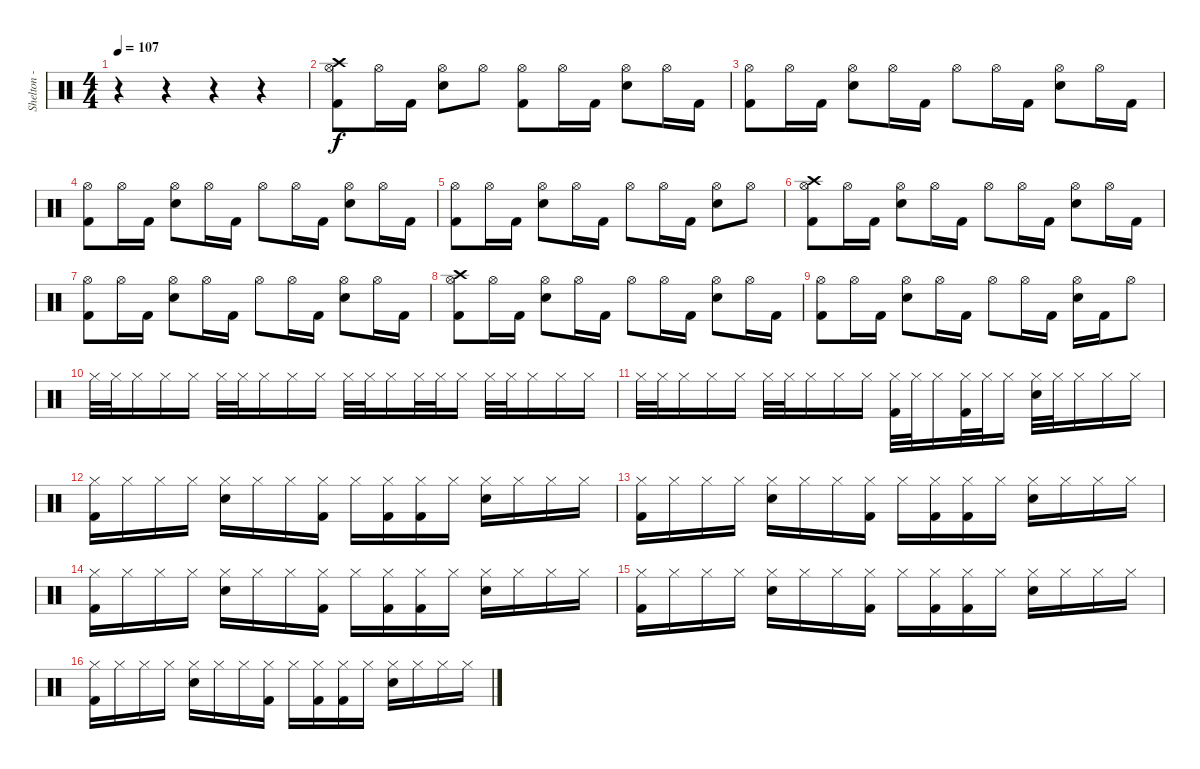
\track ("Shelton - Drums" "Shelton - ") {instrument percussion}
\staff {score}
\articulation defaults
\ts (4 4)
\tempo 107
\clef neutral
\ks c
r.4{dy f} r.4 r.4 r.4 |
("Hi-Hat (open)" "Crash high (hit)" "Kick (hit) 2").8 "Hi-Hat (open)".16 "Kick (hit) 2".16 ("Hi-Hat (open)" "Electric Snare (hit)").8 "Hi-Hat (open)".8 ("Hi-Hat (open)" "Kick (hit) 2").8 "Hi-Hat (open)".16 "Kick (hit) 2".16 ("Hi-Hat (open)" "Electric Snare (hit)").8 "Hi-Hat (open)".16 "Kick (hit) 2".16 |
("Hi-Hat (open)" "Kick (hit) 2").8 "Hi-Hat (open)".16 "Kick (hit) 2".16 ("Hi-Hat (open)" "Electric Snare (hit)").8 "Hi-Hat (open)".16 "Kick (hit) 2".16 "Hi-Hat (open)".8 "Hi-Hat (open)".16 "Kick (hit) 2".16 ("Hi-Hat (open)" "Electric Snare (hit)").8 "Hi-Hat (open)".16 "Kick (hit) 2".16 |
("Hi-Hat (open)" "Kick (hit) 2").8 "Hi-Hat (open)".16 "Kick (hit) 2".16 ("Hi-Hat (open)" "Electric Snare (hit)").8 "Hi-Hat (open)".16 "Kick (hit) 2".16 "Hi-Hat (open)".8 "Hi-Hat (open)".16 "Kick (hit) 2".16 ("Hi-Hat (open)" "Electric Snare (hit)").8 "Hi-Hat (open)".16 "Kick (hit) 2".16 |
("Hi-Hat (open)" "Kick (hit) 2").8 "Hi-Hat (open)".16 "Kick (hit) 2".16 ("Hi-Hat (open)" "Electric Snare (hit)").8 "Hi-Hat (open)".16 "Kick (hit) 2".16 "Hi-Hat (open)".8 "Hi-Hat (open)".16 "Kick (hit) 2".16 ("Hi-Hat (open)" "Electric Snare (hit)").8 "Hi-Hat (open)".8 |
("Hi-Hat (open)" "Crash high (hit)" "Kick (hit) 2").8 "Hi-Hat (open)".16 "Kick (hit) 2".16 ("Hi-Hat (open)" "Electric Snare (hit)").8 "Hi-Hat (open)".16 "Kick (hit) 2".16 "Hi-Hat (open)".8 "Hi-Hat (open)".16 "Kick (hit) 2".16 ("Hi-Hat (open)" "Electric Snare (hit)").8 "Hi-Hat (open)".16 "Kick (hit) 2".16 |
("Hi-Hat (open)" "Kick (hit) 2").8 "Hi-Hat (open)".16 "Kick (hit) 2".16 ("Hi-Hat (open)" "Electric Snare (hit)").8 "Hi-Hat (open)".16 "Kick (hit) 2".16 "Hi-Hat (open)".8 "Hi-Hat (open)".16 "Kick (hit) 2".16 ("Hi-Hat (open)" "Electric Snare (hit)").8 "Hi-Hat (open)".16 "Kick (hit) 2".16 |
("Hi-Hat (open)" "Crash high (hit)" "Kick (hit) 2").8 "Hi-Hat (open)".16 "Kick (hit) 2".16 ("Hi-Hat (open)" "Electric Snare (hit)").8 "Hi-Hat (open)".16 "Kick (hit) 2".16 "Hi-Hat (open)".8 "Hi-Hat (open)".16 "Kick (hit) 2".16 ("Hi-Hat (open)" "Electric Snare (hit)").8 "Hi-Hat (open)".16 "Kick (hit) 2".16 |
("Hi-Hat (open)" "Kick (hit) 2").8 "Hi-Hat (open)".16 "Kick (hit) 2".16 ("Hi-Hat (open)" "Electric Snare (hit)").8 "Hi-Hat (open)".16 "Kick (hit) 2".16 "Hi-Hat (open)".8 "Hi-Hat (open)".16 "Kick (hit) 2".16 ("Hi-Hat (open)" "Electric Snare (hit)").16 "Kick (hit) 2".16 "Hi-Hat (open)".8 |
"Hi-Hat (closed)".32 "Hi-Hat (closed)".32 "Hi-Hat (closed)".16 "Hi-Hat (closed)".16 "Hi-Hat (closed)".16 "Hi-Hat (closed)".32 "Hi-Hat (closed)".32 "Hi-Hat (closed)".16 "Hi-Hat (closed)".16 "Hi-Hat (closed)".16 "Hi-Hat (closed)".32 "Hi-Hat (closed)".32 "Hi-Hat (closed)".16 "Hi-Hat (closed)".32 "Hi-Hat (closed)".32 "Hi-Hat (closed)".16 "Hi-Hat (closed)".32 "Hi-Hat (closed)".32 "Hi-Hat (closed)".16 "Hi-Hat (closed)".16 "Hi-Hat (closed)".16 |
"Hi-Hat (closed)".32 "Hi-Hat (closed)".32 "Hi-Hat (closed)".16 "Hi-Hat (closed)".16 "Hi-Hat (closed)".16 "Hi-Hat (closed)".32 "Hi-Hat (closed)".32 "Hi-Hat (closed)".16 "Hi-Hat (closed)".16 "Hi-Hat (closed)".16 ("Hi-Hat (closed)" "Kick (hit) 2").32 "Hi-Hat (closed)".32 "Hi-Hat (closed)".16 ("Hi-Hat (closed)" "Kick (hit) 2").32 "Hi-Hat (closed)".32 "Hi-Hat (closed)".16 ("Hi-Hat (closed)" "Electric Snare (hit)").32 "Hi-Hat (closed)".32 "Hi-Hat (closed)".16 "Hi-Hat (closed)".16 "Hi-Hat (closed)".16 |
("Hi-Hat (closed)" "Kick (hit) 2").16 "Hi-Hat (closed)".16 "Hi-Hat (closed)".16 "Hi-Hat (closed)".16 ("Hi-Hat (closed)" "Electric Snare (hit)").16 "Hi-Hat (closed)".16 "Hi-Hat (closed)".16 ("Hi-Hat (closed)" "Kick (hit) 2").16 "Hi-Hat (closed)".16 ("Hi-Hat (closed)" "Kick (hit) 2").16 ("Hi-Hat (closed)" "Kick (hit) 2").16 "Hi-Hat (closed)".16 ("Hi-Hat (closed)" "Electric Snare (hit)").16 "Hi-Hat (closed)".16 "Hi-Hat (closed)".16 "Hi-Hat (closed)".16 |
("Hi-Hat (closed)" "Kick (hit) 2").16 "Hi-Hat (closed)".16 "Hi-Hat (closed)".16 "Hi-Hat (closed)".16 ("Hi-Hat (closed)" "Electric Snare (hit)").16 "Hi-Hat (closed)".16 "Hi-Hat (closed)".16 ("Hi-Hat (closed)" "Kick (hit) 2").16 "Hi-Hat (closed)".16 ("Hi-Hat (closed)" "Kick (hit) 2").16 ("Hi-Hat (closed)" "Kick (hit) 2").16 "Hi-Hat (closed)".16 ("Hi-Hat (closed)" "Electric Snare (hit)").16 "Hi-Hat (closed)".16 "Hi-Hat (closed)".16 "Hi-Hat (closed)".16 |
("Hi-Hat (closed)" "Kick (hit) 2").16 "Hi-Hat (closed)".16 "Hi-Hat (closed)".16 "Hi-Hat (closed)".16 ("Hi-Hat (closed)" "Electric Snare (hit)").16 "Hi-Hat (closed)".16 "Hi-Hat (closed)".16 ("Hi-Hat (closed)" "Kick (hit) 2").16 "Hi-Hat (closed)".16 ("Hi-Hat (closed)" "Kick (hit) 2").16 ("Hi-Hat (closed)" "Kick (hit) 2").16 "Hi-Hat (closed)".16 ("Hi-Hat (closed)" "Electric Snare (hit)").16 "Hi-Hat (closed)".16 "Hi-Hat (closed)".16 "Hi-Hat (closed)".16 |
("Hi-Hat (closed)" "Kick (hit) 2").16 "Hi-Hat (closed)".16 "Hi-Hat (closed)".16 "Hi-Hat (closed)".16 ("Hi-Hat (closed)" "Electric Snare (hit)").16 "Hi-Hat (closed)".16 "Hi-Hat (closed)".16 ("Hi-Hat (closed)" "Kick (hit) 2").16 "Hi-Hat (closed)".16 ("Hi-Hat (closed)" "Kick (hit) 2").16 ("Hi-Hat (closed)" "Kick (hit) 2").16 "Hi-Hat (closed)".16 ("Hi-Hat (closed)" "Electric Snare (hit)").16 "Hi-Hat (closed)".16 "Hi-Hat (closed)".16 "Hi-Hat (closed)".16 |
("Hi-Hat (closed)" "Kick (hit) 2").16 "Hi-Hat (closed)".16 "Hi-Hat (closed)".16 "Hi-Hat (closed)".16 ("Hi-Hat (closed)" "Electric Snare (hit)").16 "Hi-Hat (closed)".16 "Hi-Hat (closed)".16 ("Hi-Hat (closed)" "Kick (hit) 2").16 "Hi-Hat (closed)".16 ("Hi-Hat (closed)" "Kick (hit) 2").16 ("Hi-Hat (closed)" "Kick (hit) 2").16 "Hi-Hat (closed)".16 ("Hi-Hat (closed)" "Electric Snare (hit)").16 "Hi-Hat (closed)".16 "Hi-Hat (closed)".16 "Hi-Hat (closed)".16
